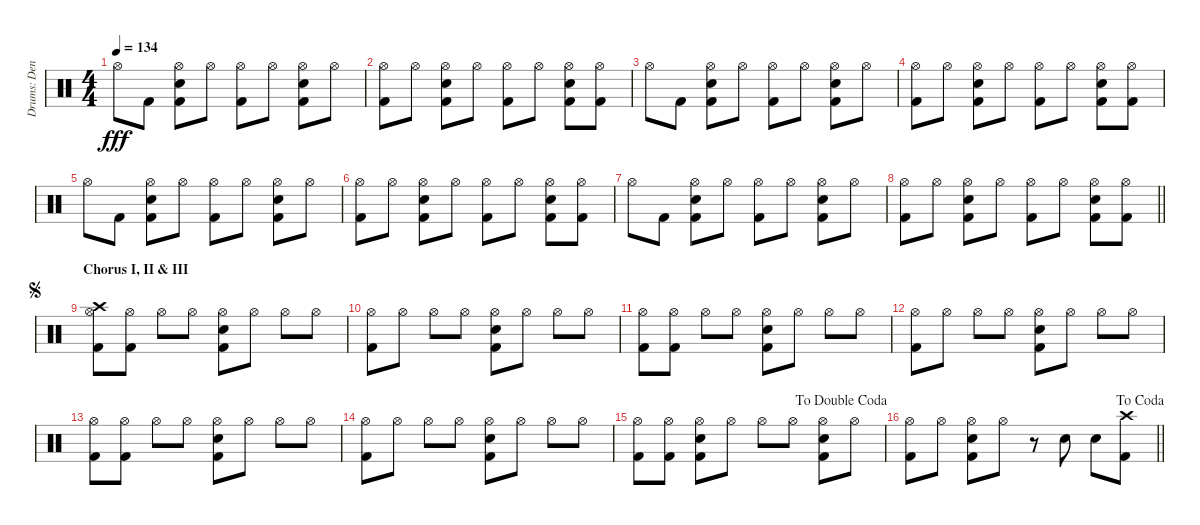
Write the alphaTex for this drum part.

\track ("Drums: Denny" "Drums: Den") {instrument percussion}
\staff {score}
\articulation defaults
\ts (4 4)
\tempo 134
\clef neutral
\ks c "Hi-Hat (open)".8{dy fff} "Kick (hit) 2".8
("Hi-Hat (open)" "Snare (hit) 2" "Kick (hit) 2").8 "Hi-Hat (open)".8 ("Hi-Hat (open)" "Kick (hit) 2").8 "Hi-Hat (open)".8 ("Hi-Hat (open)" "Snare (hit) 2" "Kick (hit) 2").8 "Hi-Hat (open)".8 |
("Hi-Hat (open)" "Kick (hit) 2").8 "Hi-Hat (open)".8 ("Hi-Hat (open)" "Snare (hit) 2" "Kick (hit) 2").8 "Hi-Hat (open)".8 ("Hi-Hat (open)" "Kick (hit) 2").8 "Hi-Hat (open)".8 ("Hi-Hat (open)" "Snare (hit) 2" "Kick (hit) 2").8 ("Hi-Hat (open)" "Kick (hit) 2").8 |
"Hi-Hat (open)".8 "Kick (hit) 2".8 ("Hi-Hat (open)" "Snare (hit) 2" "Kick (hit) 2").8 "Hi-Hat (open)".8 ("Hi-Hat (open)" "Kick (hit) 2").8 "Hi-Hat (open)".8 ("Hi-Hat (open)" "Snare (hit) 2" "Kick (hit) 2").8 "Hi-Hat (open)".8 |
("Hi-Hat (open)" "Kick (hit) 2").8 "Hi-Hat (open)".8 ("Hi-Hat (open)" "Snare (hit) 2" "Kick (hit) 2").8 "Hi-Hat (open)".8 ("Hi-Hat (open)" "Kick (hit) 2").8 "Hi-Hat (open)".8 ("Hi-Hat (open)" "Snare (hit) 2" "Kick (hit) 2").8 ("Hi-Hat (open)" "Kick (hit) 2").8 |
"Hi-Hat (open)".8 "Kick (hit) 2".8 ("Hi-Hat (open)" "Snare (hit) 2" "Kick (hit) 2").8 "Hi-Hat (open)".8 ("Hi-Hat (open)" "Kick (hit) 2").8 "Hi-Hat (open)".8 ("Hi-Hat (open)" "Snare (hit) 2" "Kick (hit) 2").8 "Hi-Hat (open)".8 |
("Hi-Hat (open)" "Kick (hit) 2").8 "Hi-Hat (open)".8 ("Hi-Hat (open)" "Snare (hit) 2" "Kick (hit) 2").8 "Hi-Hat (open)".8 ("Hi-Hat (open)" "Kick (hit) 2").8 "Hi-Hat (open)".8 ("Hi-Hat (open)" "Snare (hit) 2" "Kick (hit) 2").8 ("Hi-Hat (open)" "Kick (hit) 2").8 |
"Hi-Hat (open)".8 "Kick (hit) 2".8 ("Hi-Hat (open)" "Snare (hit) 2" "Kick (hit) 2").8 "Hi-Hat (open)".8 ("Hi-Hat (open)" "Kick (hit) 2").8 "Hi-Hat (open)".8 ("Hi-Hat (open)" "Snare (hit) 2" "Kick (hit) 2").8 "Hi-Hat (open)".8 |
\barLineRight lightlight
("Hi-Hat (open)" "Kick (hit) 2").8 "Hi-Hat (open)".8 ("Hi-Hat (open)" "Snare (hit) 2" "Kick (hit) 2").8 "Hi-Hat (open)".8 ("Hi-Hat (open)" "Kick (hit) 2").8 "Hi-Hat (open)".8 ("Hi-Hat (open)" "Snare (hit) 2" "Kick (hit) 2").8 ("Hi-Hat (open)" "Kick (hit) 2").8 |
\section ("" "Chorus I, II & III")
\jump segno
("Crash high (hit)" "Hi-Hat (open)" "Kick (hit) 2").8 ("Hi-Hat (open)" "Kick (hit) 2").8 "Hi-Hat (open)".8 "Hi-Hat (open)".8 ("Hi-Hat (open)" "Snare (hit) 2" "Kick (hit) 2").8 "Hi-Hat (open)".8 "Hi-Hat (open)".8 "Hi-Hat (open)".8 |
("Hi-Hat (open)" "Kick (hit) 2").8 "Hi-Hat (open)".8 "Hi-Hat (open)".8 "Hi-Hat (open)".8 ("Hi-Hat (open)" "Snare (hit) 2" "Kick (hit) 2").8 "Hi-Hat (open)".8 "Hi-Hat (open)".8 "Hi-Hat (open)".8 |
("Hi-Hat (open)" "Kick (hit) 2").8 ("Hi-Hat (open)" "Kick (hit) 2").8 "Hi-Hat (open)".8 "Hi-Hat (open)".8 ("Hi-Hat (open)" "Snare (hit) 2" "Kick (hit) 2").8 "Hi-Hat (open)".8 "Hi-Hat (open)".8 "Hi-Hat (open)".8 |
("Hi-Hat (open)" "Kick (hit) 2").8 "Hi-Hat (open)".8 "Hi-Hat (open)".8 "Hi-Hat (open)".8 ("Hi-Hat (open)" "Snare (hit) 2" "Kick (hit) 2").8 "Hi-Hat (open)".8 "Hi-Hat (open)".8 "Hi-Hat (open)".8 |
("Hi-Hat (open)" "Kick (hit) 2").8 ("Hi-Hat (open)" "Kick (hit) 2").8 "Hi-Hat (open)".8 "Hi-Hat (open)".8 ("Hi-Hat (open)" "Snare (hit) 2" "Kick (hit) 2").8 "Hi-Hat (open)".8 "Hi-Hat (open)".8 "Hi-Hat (open)".8 |
("Hi-Hat (open)" "Kick (hit) 2").8 "Hi-Hat (open)".8 "Hi-Hat (open)".8 "Hi-Hat (open)".8 ("Hi-Hat (open)" "Snare (hit) 2" "Kick (hit) 2").8 "Hi-Hat (open)".8 "Hi-Hat (open)".8 "Hi-Hat (open)".8 |
\jump dadoublecoda
("Hi-Hat (open)" "Kick (hit) 2").8 ("Hi-Hat (open)" "Kick (hit) 2").8 ("Hi-Hat (open)" "Snare (hit) 2" "Kick (hit) 2").8 "Hi-Hat (open)".8 "Hi-Hat (open)".8 "Hi-Hat (open)".8 ("Hi-Hat (open)" "Snare (hit) 2" "Kick (hit) 2").8 "Hi-Hat (open)".8 |
\jump dacoda
\barLineRight lightlight
("Hi-Hat (open)" "Kick (hit) 2").8 "Hi-Hat (open)".8 ("Hi-Hat (open)" "Snare (hit) 2" "Kick (hit) 2").8 "Hi-Hat (open)".8 r.8 "Snare (hit) 2".8 "Snare (hit) 2".8 ("Crash high (hit)" "Kick (hit) 2").8
